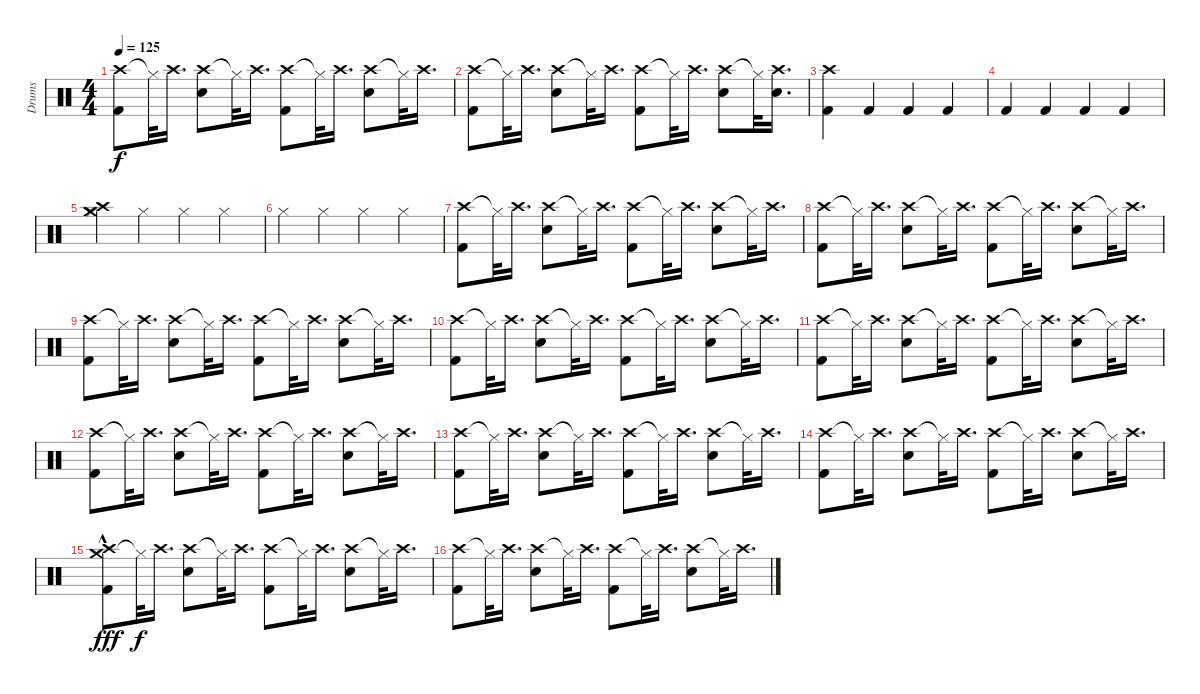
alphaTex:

\track ("Drums" "Drums") {instrument percussion}
\staff {score}
\articulation defaults
\ts (4 4)
\tempo 125
\clef neutral
\ks c
("Crash high (hit)" "Kick (hit) 2").8{dy f} "Hi-Hat (closed)"{t}.32 "Crash high (hit)".16{d} ("Crash high (hit)" "Electric Snare (hit)").8 "Hi-Hat (closed)"{t}.32 "Crash high (hit)".16{d} ("Crash high (hit)" "Kick (hit) 2").8 "Hi-Hat (closed)"{t}.32 "Crash high (hit)".16{d} ("Crash high (hit)" "Electric Snare (hit)").8 "Hi-Hat (closed)"{t}.32 "Crash high (hit)".16{d} |
("Crash high (hit)" "Kick (hit) 2").8 "Hi-Hat (closed)"{t}.32 "Crash high (hit)".16{d} ("Crash high (hit)" "Electric Snare (hit)").8 "Hi-Hat (closed)"{t}.32 "Crash high (hit)".16{d} ("Crash high (hit)" "Kick (hit) 2").8 "Hi-Hat (closed)"{t}.32 "Crash high (hit)".16{d} ("Crash high (hit)" "Electric Snare (hit)").8 "Hi-Hat (closed)"{t}.32 ("Crash high (hit)" "Electric Snare (hit)").16{d} |
("Crash high (hit)" "Kick (hit) 2").4 "Kick (hit) 2".4 "Kick (hit) 2".4 "Kick (hit) 2".4 |
"Kick (hit) 2".4 "Kick (hit) 2".4 "Kick (hit) 2".4 "Kick (hit) 2".4 |
("Crash high (hit)" "Crash medium (hit)" "Hi-Hat (closed)").4 "Hi-Hat (closed)".4 "Hi-Hat (closed)".4 "Hi-Hat (closed)".4 |
"Hi-Hat (closed)".4 "Hi-Hat (closed)".4 "Hi-Hat (closed)".4 "Hi-Hat (closed)".4 |
("Crash high (hit)" "Kick (hit) 2").8 "Hi-Hat (closed)"{t}.32 "Crash high (hit)".16{d} ("Crash high (hit)" "Electric Snare (hit)").8 "Hi-Hat (closed)"{t}.32 "Crash high (hit)".16{d} ("Crash high (hit)" "Kick (hit) 2").8 "Hi-Hat (closed)"{t}.32 "Crash high (hit)".16{d} ("Crash high (hit)" "Electric Snare (hit)").8 "Hi-Hat (closed)"{t}.32 "Crash high (hit)".16{d} |
("Crash high (hit)" "Kick (hit) 2").8 "Hi-Hat (closed)"{t}.32 "Crash high (hit)".16{d} ("Crash high (hit)" "Electric Snare (hit)").8 "Hi-Hat (closed)"{t}.32 "Crash high (hit)".16{d} ("Crash high (hit)" "Kick (hit) 2").8 "Hi-Hat (closed)"{t}.32 "Crash high (hit)".16{d} ("Crash high (hit)" "Electric Snare (hit)").8 "Hi-Hat (closed)"{t}.32 "Crash high (hit)".16{d} |
("Crash high (hit)" "Kick (hit) 2").8 "Hi-Hat (closed)"{t}.32 "Crash high (hit)".16{d} ("Crash high (hit)" "Electric Snare (hit)").8 "Hi-Hat (closed)"{t}.32 "Crash high (hit)".16{d} ("Crash high (hit)" "Kick (hit) 2").8 "Hi-Hat (closed)"{t}.32 "Crash high (hit)".16{d} ("Crash high (hit)" "Electric Snare (hit)").8 "Hi-Hat (closed)"{t}.32 "Crash high (hit)".16{d} |
("Crash high (hit)" "Kick (hit) 2").8 "Hi-Hat (closed)"{t}.32 "Crash high (hit)".16{d} ("Crash high (hit)" "Electric Snare (hit)").8 "Hi-Hat (closed)"{t}.32 "Crash high (hit)".16{d} ("Crash high (hit)" "Kick (hit) 2").8 "Hi-Hat (closed)"{t}.32 "Crash high (hit)".16{d} ("Crash high (hit)" "Electric Snare (hit)").8 "Hi-Hat (closed)"{t}.32 "Crash high (hit)".16{d} |
("Crash high (hit)" "Kick (hit) 2").8 "Hi-Hat (closed)"{t}.32 "Crash high (hit)".16{d} ("Crash high (hit)" "Electric Snare (hit)").8 "Hi-Hat (closed)"{t}.32 "Crash high (hit)".16{d} ("Crash high (hit)" "Kick (hit) 2").8 "Hi-Hat (closed)"{t}.32 "Crash high (hit)".16{d} ("Crash high (hit)" "Electric Snare (hit)").8 "Hi-Hat (closed)"{t}.32 "Crash high (hit)".16{d} |
("Crash high (hit)" "Kick (hit) 2").8 "Hi-Hat (closed)"{t}.32 "Crash high (hit)".16{d} ("Crash high (hit)" "Electric Snare (hit)").8 "Hi-Hat (closed)"{t}.32 "Crash high (hit)".16{d} ("Crash high (hit)" "Kick (hit) 2").8 "Hi-Hat (closed)"{t}.32 "Crash high (hit)".16{d} ("Crash high (hit)" "Electric Snare (hit)").8 "Hi-Hat (closed)"{t}.32 "Crash high (hit)".16{d} |
("Crash high (hit)" "Kick (hit) 2").8 "Hi-Hat (closed)"{t}.32 "Crash high (hit)".16{d} ("Crash high (hit)" "Electric Snare (hit)").8 "Hi-Hat (closed)"{t}.32 "Crash high (hit)".16{d} ("Crash high (hit)" "Kick (hit) 2").8 "Hi-Hat (closed)"{t}.32 "Crash high (hit)".16{d} ("Crash high (hit)" "Electric Snare (hit)").8 "Hi-Hat (closed)"{t}.32 "Crash high (hit)".16{d} |
("Crash high (hit)" "Kick (hit) 2").8 "Hi-Hat (closed)"{t}.32 "Crash high (hit)".16{d} ("Crash high (hit)" "Electric Snare (hit)").8 "Hi-Hat (closed)"{t}.32 "Crash high (hit)".16{d} ("Crash high (hit)" "Kick (hit) 2").8 "Hi-Hat (closed)"{t}.32 "Crash high (hit)".16{d} ("Crash high (hit)" "Electric Snare (hit)").8 "Hi-Hat (closed)"{t}.32 "Crash high (hit)".16{d} |
("Crash medium (hit)"{hac} "Crash high (hit)" "Kick (hit) 2").8{dy fff} "Hi-Hat (closed)"{t}.32{dy f} "Crash high (hit)".16{d} ("Crash high (hit)" "Electric Snare (hit)").8 "Hi-Hat (closed)"{t}.32 "Crash high (hit)".16{d} ("Crash high (hit)" "Kick (hit) 2").8 "Hi-Hat (closed)"{t}.32 "Crash high (hit)".16{d} ("Crash high (hit)" "Electric Snare (hit)").8 "Hi-Hat (closed)"{t}.32 "Crash high (hit)".16{d} |
("Crash high (hit)" "Kick (hit) 2").8 "Hi-Hat (closed)"{t}.32 "Crash high (hit)".16{d} ("Crash high (hit)" "Electric Snare (hit)").8 "Hi-Hat (closed)"{t}.32 "Crash high (hit)".16{d} ("Crash high (hit)" "Kick (hit) 2").8 "Hi-Hat (closed)"{t}.32 "Crash high (hit)".16{d} ("Crash high (hit)" "Electric Snare (hit)").8 "Hi-Hat (closed)"{t}.32 "Crash high (hit)".16{d}
